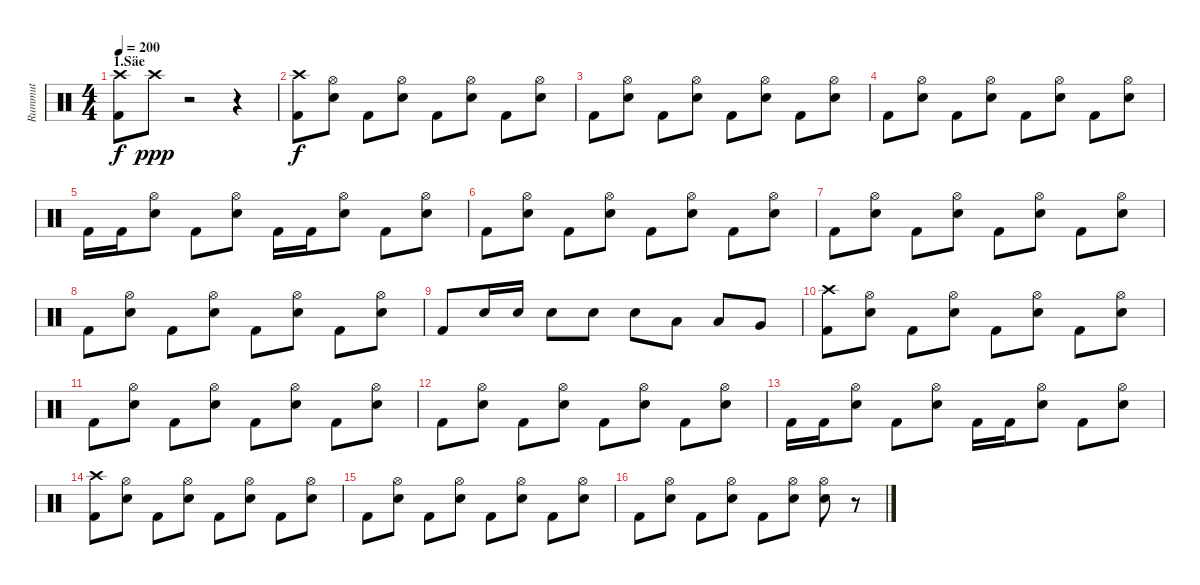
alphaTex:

\track ("Rummut" "Rummut") {instrument percussion}
\staff {score}
\articulation defaults
\ts (4 4)
\section ("" "1.Säe")
\tempo 200
\clef neutral
\ks c
("Crash high (hit)" "Kick (hit) 2").8{dy f} "Crash high (hit)".8{dy ppp} r.2 r.4 |
("Crash high (hit)" "Kick (hit) 2").8{dy f} ("Hi-Hat (open)" "Electric Snare (hit)").8 "Kick (hit) 2".8 ("Hi-Hat (open)" "Electric Snare (hit)").8 "Kick (hit) 2".8 ("Hi-Hat (open)" "Electric Snare (hit)").8 "Kick (hit) 2".8 ("Hi-Hat (open)" "Electric Snare (hit)").8 |
"Kick (hit) 2".8 ("Hi-Hat (open)" "Electric Snare (hit)").8 "Kick (hit) 2".8 ("Hi-Hat (open)" "Electric Snare (hit)").8 "Kick (hit) 2".8 ("Hi-Hat (open)" "Electric Snare (hit)").8 "Kick (hit) 2".8 ("Hi-Hat (open)" "Electric Snare (hit)").8 |
"Kick (hit) 2".8 ("Hi-Hat (open)" "Electric Snare (hit)").8 "Kick (hit) 2".8 ("Hi-Hat (open)" "Electric Snare (hit)").8 "Kick (hit) 2".8 ("Hi-Hat (open)" "Electric Snare (hit)").8 "Kick (hit) 2".8 ("Hi-Hat (open)" "Electric Snare (hit)").8 |
"Kick (hit) 2".16 "Kick (hit) 2".16 ("Hi-Hat (open)" "Electric Snare (hit)").8 "Kick (hit) 2".8 ("Hi-Hat (open)" "Electric Snare (hit)").8 "Kick (hit) 2".16 "Kick (hit) 2".16 ("Hi-Hat (open)" "Electric Snare (hit)").8 "Kick (hit) 2".8 ("Hi-Hat (open)" "Electric Snare (hit)").8 |
"Kick (hit) 2".8 ("Hi-Hat (open)" "Electric Snare (hit)").8 "Kick (hit) 2".8 ("Hi-Hat (open)" "Electric Snare (hit)").8 "Kick (hit) 2".8 ("Hi-Hat (open)" "Electric Snare (hit)").8 "Kick (hit) 2".8 ("Hi-Hat (open)" "Electric Snare (hit)").8 |
"Kick (hit) 2".8 ("Hi-Hat (open)" "Electric Snare (hit)").8 "Kick (hit) 2".8 ("Hi-Hat (open)" "Electric Snare (hit)").8 "Kick (hit) 2".8 ("Hi-Hat (open)" "Electric Snare (hit)").8 "Kick (hit) 2".8 ("Hi-Hat (open)" "Electric Snare (hit)").8 |
"Kick (hit) 2".8 ("Hi-Hat (open)" "Electric Snare (hit)").8 "Kick (hit) 2".8 ("Hi-Hat (open)" "Electric Snare (hit)").8 "Kick (hit) 2".8 ("Hi-Hat (open)" "Electric Snare (hit)").8 "Kick (hit) 2".8 ("Hi-Hat (open)" "Electric Snare (hit)").8 |
"Kick (hit) 2".8 "Electric Snare (hit)".16 "Electric Snare (hit)".16 "Electric Snare (hit)".8 "Electric Snare (hit)".8 "Electric Snare (hit)".8 "Low Tom (hit)".8 "Low Tom (hit)".8 "Very Low Tom (hit)".8 |
("Crash high (hit)" "Kick (hit) 2").8 ("Hi-Hat (open)" "Electric Snare (hit)").8 "Kick (hit) 2".8 ("Hi-Hat (open)" "Electric Snare (hit)").8 "Kick (hit) 2".8 ("Hi-Hat (open)" "Electric Snare (hit)").8 "Kick (hit) 2".8 ("Hi-Hat (open)" "Electric Snare (hit)").8 |
"Kick (hit) 2".8 ("Hi-Hat (open)" "Electric Snare (hit)").8 "Kick (hit) 2".8 ("Hi-Hat (open)" "Electric Snare (hit)").8 "Kick (hit) 2".8 ("Hi-Hat (open)" "Electric Snare (hit)").8 "Kick (hit) 2".8 ("Hi-Hat (open)" "Electric Snare (hit)").8 |
"Kick (hit) 2".8 ("Hi-Hat (open)" "Electric Snare (hit)").8 "Kick (hit) 2".8 ("Hi-Hat (open)" "Electric Snare (hit)").8 "Kick (hit) 2".8 ("Hi-Hat (open)" "Electric Snare (hit)").8 "Kick (hit) 2".8 ("Hi-Hat (open)" "Electric Snare (hit)").8 |
"Kick (hit) 2".16 "Kick (hit) 2".16 ("Hi-Hat (open)" "Electric Snare (hit)").8 "Kick (hit) 2".8 ("Hi-Hat (open)" "Electric Snare (hit)").8 "Kick (hit) 2".16 "Kick (hit) 2".16 ("Hi-Hat (open)" "Electric Snare (hit)").8 "Kick (hit) 2".8 ("Hi-Hat (open)" "Electric Snare (hit)").8 |
("Crash high (hit)" "Kick (hit) 2").8 ("Hi-Hat (open)" "Electric Snare (hit)").8 "Kick (hit) 2".8 ("Hi-Hat (open)" "Electric Snare (hit)").8 "Kick (hit) 2".8 ("Hi-Hat (open)" "Electric Snare (hit)").8 "Kick (hit) 2".8 ("Hi-Hat (open)" "Electric Snare (hit)").8 |
"Kick (hit) 2".8 ("Hi-Hat (open)" "Electric Snare (hit)").8 "Kick (hit) 2".8 ("Hi-Hat (open)" "Electric Snare (hit)").8 "Kick (hit) 2".8 ("Hi-Hat (open)" "Electric Snare (hit)").8 "Kick (hit) 2".8 ("Hi-Hat (open)" "Electric Snare (hit)").8 |
"Kick (hit) 2".8 ("Hi-Hat (open)" "Electric Snare (hit)").8 "Kick (hit) 2".8 ("Hi-Hat (open)" "Electric Snare (hit)").8 "Kick (hit) 2".8 ("Hi-Hat (open)" "Electric Snare (hit)").8 ("Hi-Hat (open)" "Electric Snare (hit)").8 r.8
